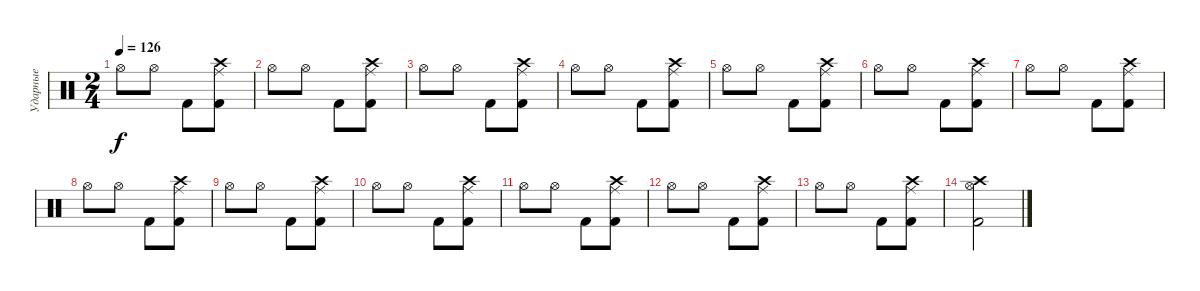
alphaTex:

\track ("Ударные" "Ударные") {instrument percussion}
\staff {score}
\articulation defaults
\ts (2 4)
\tempo 126
\clef neutral
\ks c "Hi-Hat (open)".8{dy f} "Hi-Hat (open)".8 "Kick (hit) 2".8
("Crash high (hit)" "Kick (hit) 2" "Ride (middle)").8 |
"Hi-Hat (open)".8 "Hi-Hat (open)".8 "Kick (hit) 2".8 ("Crash high (hit)" "Kick (hit) 2" "Ride (middle)").8 |
"Hi-Hat (open)".8 "Hi-Hat (open)".8 "Kick (hit) 2".8 ("Crash high (hit)" "Kick (hit) 2" "Ride (middle)").8 |
"Hi-Hat (open)".8 "Hi-Hat (open)".8 "Kick (hit) 2".8 ("Crash high (hit)" "Kick (hit) 2" "Ride (middle)").8 |
"Hi-Hat (open)".8 "Hi-Hat (open)".8 "Kick (hit) 2".8 ("Crash high (hit)" "Kick (hit) 2" "Ride (middle)").8 |
"Hi-Hat (open)".8 "Hi-Hat (open)".8 "Kick (hit) 2".8 ("Crash high (hit)" "Kick (hit) 2" "Ride (middle)").8 |
"Hi-Hat (open)".8 "Hi-Hat (open)".8 "Kick (hit) 2".8 ("Crash high (hit)" "Kick (hit) 2" "Ride (middle)").8 |
"Hi-Hat (open)".8 "Hi-Hat (open)".8 "Kick (hit) 2".8 ("Crash high (hit)" "Kick (hit) 2" "Ride (middle)").8 |
"Hi-Hat (open)".8 "Hi-Hat (open)".8 "Kick (hit) 2".8 ("Crash high (hit)" "Kick (hit) 2" "Ride (middle)").8 |
"Hi-Hat (open)".8 "Hi-Hat (open)".8 "Kick (hit) 2".8 ("Crash high (hit)" "Kick (hit) 2" "Ride (middle)").8 |
"Hi-Hat (open)".8 "Hi-Hat (open)".8 "Kick (hit) 2".8 ("Crash high (hit)" "Kick (hit) 2" "Ride (middle)").8 |
"Hi-Hat (open)".8 "Hi-Hat (open)".8 "Kick (hit) 2".8 ("Crash high (hit)" "Kick (hit) 2" "Ride (middle)").8 |
"Hi-Hat (open)".8 "Hi-Hat (open)".8 "Kick (hit) 2".8 ("Crash high (hit)" "Kick (hit) 2" "Ride (middle)").8 |
("Crash high (hit)" "Kick (hit) 2" "Hi-Hat (open)").2
